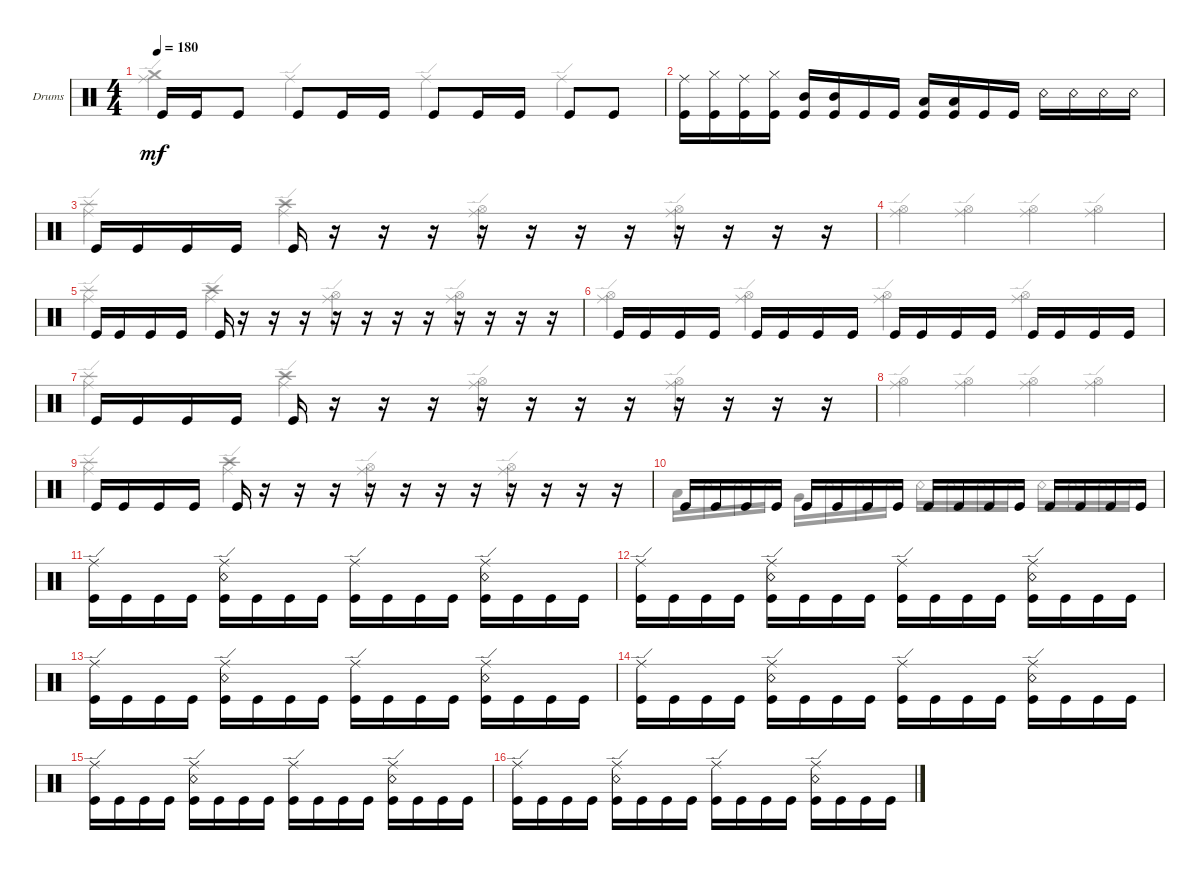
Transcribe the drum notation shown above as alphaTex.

\defaultSystemsLayout 4
\bracketExtendMode groupsimilarinstruments
\firstSystemTrackNameOrientation horizontal
\otherSystemsTrackNameOrientation horizontal
\track ("Drumkit" "Drums") {instrument percussion}
\staff {score}
\articulation defaults
\voice
\ts (4 4)
\tempo 180
\clef neutral
\ks c "Kick (hit)".16{dy mf} "Kick (hit)".16 "Kick (hit)".8 "Kick (hit)".8 "Kick (hit)".16 "Kick (hit)".16 "Kick (hit)".8 "Kick (hit)".16 "Kick (hit)".16 "Kick (hit)".8 "Kick (hit)".8
|
("Kick (hit)" "Ride (middle)").16 ("Kick (hit)" "Hi-Hat (closed)").16 ("Kick (hit)" "Ride (middle)").16 ("Kick (hit)" "Hi-Hat (closed)").16 ("Kick (hit)" "Mid Tom (hit)").16 ("Kick (hit)" "Mid Tom (hit)").16 "Kick (hit)".16 "Kick (hit)".16 ("Kick (hit)" "Low Tom (hit)").16 ("Kick (hit)" "Low Tom (hit)").16 "Kick (hit)".16 "Kick (hit)".16 "Snare (rim shot)".16 "Snare (rim shot)".16 "Snare (rim shot)".16 "Snare (rim shot)".16 |
"Kick (hit)".16 "Kick (hit)".16 "Kick (hit)".16 "Kick (hit)".16 "Kick (hit)".16 r.16 r.16 r.16 r.16 r.16 r.16 r.16 r.16 r.16 r.16 r.16 |
|
"Kick (hit)".16 "Kick (hit)".16 "Kick (hit)".16 "Kick (hit)".16 "Kick (hit)".16 r.16 r.16 r.16 r.16 r.16 r.16 r.16 r.16 r.16 r.16 r.16 |
"Kick (hit)".16 "Kick (hit)".16 "Kick (hit)".16 "Kick (hit)".16 "Kick (hit)".16 "Kick (hit)".16 "Kick (hit)".16 "Kick (hit)".16 "Kick (hit)".16 "Kick (hit)".16 "Kick (hit)".16 "Kick (hit)".16 "Kick (hit)".16 "Kick (hit)".16 "Kick (hit)".16 "Kick (hit)".16 |
"Kick (hit)".16 "Kick (hit)".16 "Kick (hit)".16 "Kick (hit)".16 "Kick (hit)".16 r.16 r.16 r.16 r.16 r.16 r.16 r.16 r.16 r.16 r.16 r.16 |
|
"Kick (hit)".16 "Kick (hit)".16 "Kick (hit)".16 "Kick (hit)".16 "Kick (hit)".16 r.16 r.16 r.16 r.16 r.16 r.16 r.16 r.16 r.16 r.16 r.16 |
"Kick (hit)".16 "Kick (hit)".16 "Kick (hit)".16 "Kick (hit)".16 "Kick (hit)".16 "Kick (hit)".16 "Kick (hit)".16 "Kick (hit)".16 "Kick (hit)".16 "Kick (hit)".16 "Kick (hit)".16 "Kick (hit)".16 "Kick (hit)".16 "Kick (hit)".16 "Kick (hit)".16 "Kick (hit)".16 |
("Kick (hit)" "Ride (edge)").16 "Kick (hit)".16 "Kick (hit)".16 "Kick (hit)".16 ("Kick (hit)" "Snare (rim shot)" "Ride (edge)").16 "Kick (hit)".16 "Kick (hit)".16 "Kick (hit)".16 ("Kick (hit)" "Ride (edge)").16 "Kick (hit)".16 "Kick (hit)".16 "Kick (hit)".16 ("Kick (hit)" "Snare (rim shot)" "Ride (edge)").16 "Kick (hit)".16 "Kick (hit)".16 "Kick (hit)".16 |
("Kick (hit)" "Ride (edge)").16 "Kick (hit)".16 "Kick (hit)".16 "Kick (hit)".16 ("Kick (hit)" "Snare (rim shot)" "Ride (edge)").16 "Kick (hit)".16 "Kick (hit)".16 "Kick (hit)".16 ("Kick (hit)" "Ride (edge)").16 "Kick (hit)".16 "Kick (hit)".16 "Kick (hit)".16 ("Kick (hit)" "Snare (rim shot)" "Ride (edge)").16 "Kick (hit)".16 "Kick (hit)".16 "Kick (hit)".16 |
("Kick (hit)" "Ride (edge)").16 "Kick (hit)".16 "Kick (hit)".16 "Kick (hit)".16 ("Kick (hit)" "Snare (rim shot)" "Ride (edge)").16 "Kick (hit)".16 "Kick (hit)".16 "Kick (hit)".16 ("Kick (hit)" "Ride (edge)").16 "Kick (hit)".16 "Kick (hit)".16 "Kick (hit)".16 ("Kick (hit)" "Snare (rim shot)" "Ride (edge)").16 "Kick (hit)".16 "Kick (hit)".16 "Kick (hit)".16 |
("Kick (hit)" "Ride (edge)").16 "Kick (hit)".16 "Kick (hit)".16 "Kick (hit)".16 ("Kick (hit)" "Snare (rim shot)" "Ride (edge)").16 "Kick (hit)".16 "Kick (hit)".16 "Kick (hit)".16 ("Kick (hit)" "Ride (edge)").16 "Kick (hit)".16 "Kick (hit)".16 "Kick (hit)".16 ("Kick (hit)" "Snare (rim shot)" "Ride (edge)").16 "Kick (hit)".16 "Kick (hit)".16 "Kick (hit)".16 |
("Kick (hit)" "Ride (edge)").16 "Kick (hit)".16 "Kick (hit)".16 "Kick (hit)".16 ("Kick (hit)" "Snare (rim shot)" "Ride (edge)").16 "Kick (hit)".16 "Kick (hit)".16 "Kick (hit)".16 ("Kick (hit)" "Ride (edge)").16 "Kick (hit)".16 "Kick (hit)".16 "Kick (hit)".16 ("Kick (hit)" "Snare (rim shot)" "Ride (edge)").16 "Kick (hit)".16 "Kick (hit)".16 "Kick (hit)".16 |
("Kick (hit)" "Ride (edge)").16 "Kick (hit)".16 "Kick (hit)".16 "Kick (hit)".16 ("Kick (hit)" "Snare (rim shot)" "Ride (edge)").16 "Kick (hit)".16 "Kick (hit)".16 "Kick (hit)".16 ("Kick (hit)" "Ride (edge)").16 "Kick (hit)".16 "Kick (hit)".16 "Kick (hit)".16 ("Kick (hit)" "Snare (rim shot)" "Ride (edge)").16 "Kick (hit)".16 "Kick (hit)".16 "Kick (hit)".16
\voice
\clef neutral
\ottava regular
\simile none
\ks c
("Ride (edge)" "Crash medium (hit)").4{dy mf} "Ride (edge)".4 "Ride (edge)".4 "Ride (edge)".4 |
|
("Ride (edge)" "Splash (hit)").4 ("Ride (edge)" "Crash high (hit)").4 ("Hi-Hat (open)" "Ride (edge)").4 ("Hi-Hat (open)" "Ride (edge)").4 |
("Hi-Hat (open)" "Ride (edge)").4 ("Hi-Hat (open)" "Ride (edge)").4 ("Hi-Hat (open)" "Ride (edge)").4 ("Hi-Hat (open)" "Ride (edge)").4 |
("Ride (edge)" "Splash (hit)").4 ("Ride (edge)" "Crash high (hit)").4 ("Hi-Hat (open)" "Ride (edge)").4 ("Hi-Hat (open)" "Ride (edge)").4 |
("Hi-Hat (open)" "Ride (edge)").4 ("Hi-Hat (open)" "Ride (edge)").4 ("Hi-Hat (open)" "Ride (edge)").4 ("Hi-Hat (open)" "Ride (edge)").4 |
("Ride (edge)" "Splash (hit)").4 ("Ride (edge)" "Crash high (hit)").4 ("Hi-Hat (open)" "Ride (edge)").4 ("Hi-Hat (open)" "Ride (edge)").4 |
("Hi-Hat (open)" "Ride (edge)").4 ("Hi-Hat (open)" "Ride (edge)").4 ("Hi-Hat (open)" "Ride (edge)").4 ("Hi-Hat (open)" "Ride (edge)").4 |
("Ride (edge)" "Splash (hit)").4 ("Ride (edge)" "Crash high (hit)").4 ("Hi-Hat (open)" "Ride (edge)").4 ("Hi-Hat (open)" "Ride (edge)").4 |
"Low Tom (hit)".16 "Snare (rim shot)".16 "Snare (rim shot)".16 "Snare (rim shot)".16 "Very Low Tom (hit)".16 "Snare (rim shot)".16 "Snare (rim shot)".16 "Snare (rim shot)".16 "Snare (rim shot)".16 "Snare (rim shot)".16 "Snare (rim shot)".16 "Snare (rim shot)".16 "Snare (rim shot)".16 "Snare (rim shot)".16 "Snare (rim shot)".16 "Snare (rim shot)".16 |
|
|
|
|
|
